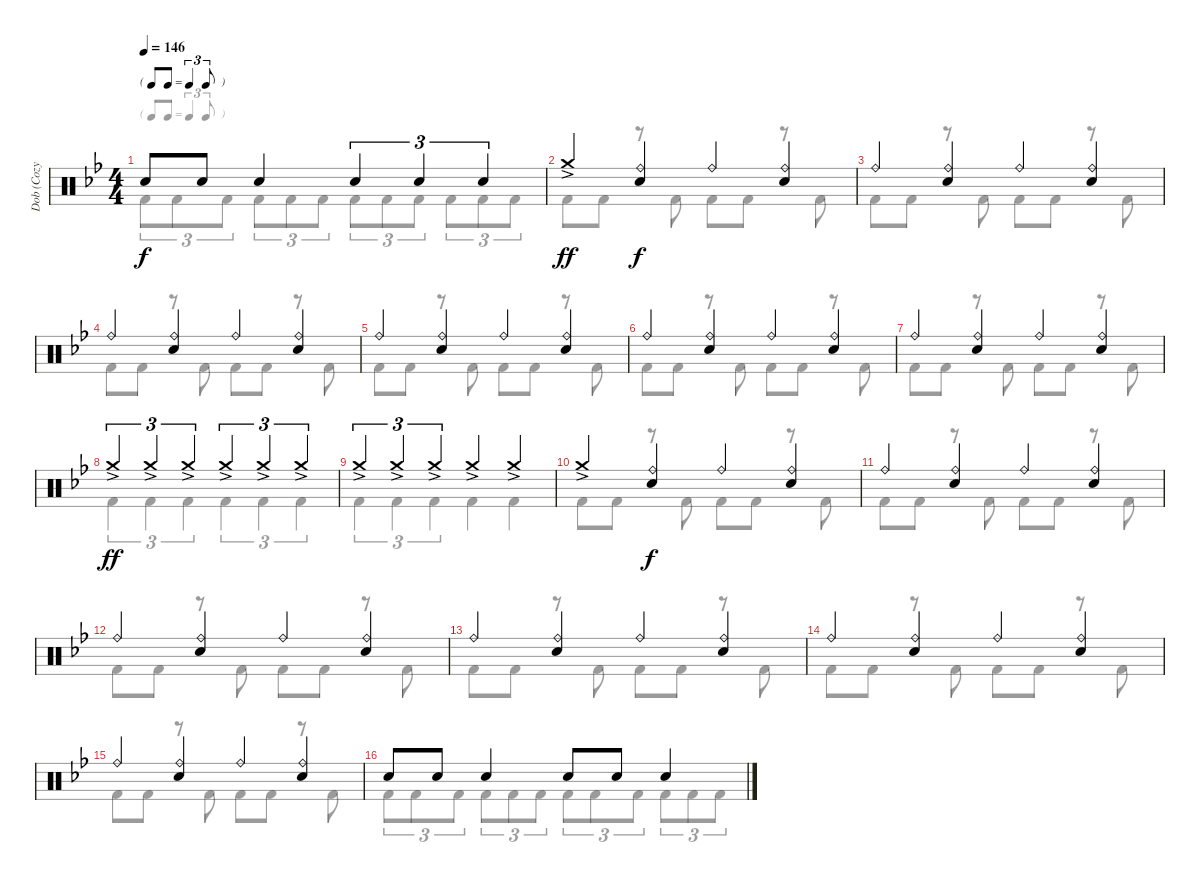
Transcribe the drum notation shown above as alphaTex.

\track ("Dob (Cozy Powell)" "Dob (Cozy ") {instrument percussion}
\staff {score}
\articulation defaults
\voice
\ts (4 4)
\tf triplet8th
\tempo 146
\clef neutral
\ks bb "Electric Snare (hit)".8{dy f} "Electric Snare (hit)".8 "Electric Snare (hit)".4 "Electric Snare (hit)".4{tu (3 2)} "Electric Snare (hit)".4{tu (3 2)} "Electric Snare (hit)".4{tu (3 2)}
|
"Crash medium (hit)"{ac}.4{dy ff} ("Ride (bell)" "Electric Snare (hit)").4{dy f} "Ride (bell)".4 ("Ride (bell)" "Electric Snare (hit)").4 |
"Ride (bell)".4 ("Ride (bell)" "Electric Snare (hit)").4 "Ride (bell)".4 ("Ride (bell)" "Electric Snare (hit)").4 |
"Ride (bell)".4 ("Ride (bell)" "Electric Snare (hit)").4 "Ride (bell)".4 ("Ride (bell)" "Electric Snare (hit)").4 |
"Ride (bell)".4 ("Ride (bell)" "Electric Snare (hit)").4 "Ride (bell)".4 ("Ride (bell)" "Electric Snare (hit)").4 |
"Ride (bell)".4 ("Ride (bell)" "Electric Snare (hit)").4 "Ride (bell)".4 ("Ride (bell)" "Electric Snare (hit)").4 |
"Ride (bell)".4 ("Ride (bell)" "Electric Snare (hit)").4 "Ride (bell)".4 ("Ride (bell)" "Electric Snare (hit)").4 |
"Crash medium (hit)"{ac}.4{tu (3 2) dy ff} "Crash medium (hit)"{ac}.4{tu (3 2)} "Crash medium (hit)"{ac}.4{tu (3 2)} "Crash medium (hit)"{ac}.4{tu (3 2)} "Crash medium (hit)"{ac}.4{tu (3 2)} "Crash medium (hit)"{ac}.4{tu (3 2)} |
"Crash medium (hit)"{ac}.4{tu (3 2)} "Crash medium (hit)"{ac}.4{tu (3 2)} "Crash medium (hit)"{ac}.4{tu (3 2)} "Crash medium (hit)"{ac}.4 "Crash medium (hit)"{ac}.4 |
"Crash medium (hit)"{ac}.4 ("Ride (bell)" "Electric Snare (hit)").4{dy f} "Ride (bell)".4 ("Ride (bell)" "Electric Snare (hit)").4 |
"Ride (bell)".4 ("Ride (bell)" "Electric Snare (hit)").4 "Ride (bell)".4 ("Ride (bell)" "Electric Snare (hit)").4 |
"Ride (bell)".4 ("Ride (bell)" "Electric Snare (hit)").4 "Ride (bell)".4 ("Ride (bell)" "Electric Snare (hit)").4 |
"Ride (bell)".4 ("Ride (bell)" "Electric Snare (hit)").4 "Ride (bell)".4 ("Ride (bell)" "Electric Snare (hit)").4 |
"Ride (bell)".4 ("Ride (bell)" "Electric Snare (hit)").4 "Ride (bell)".4 ("Ride (bell)" "Electric Snare (hit)").4 |
"Ride (bell)".4 ("Ride (bell)" "Electric Snare (hit)").4 "Ride (bell)".4 ("Ride (bell)" "Electric Snare (hit)").4 |
"Electric Snare (hit)".8 "Electric Snare (hit)".8 "Electric Snare (hit)".4 "Electric Snare (hit)".8 "Electric Snare (hit)".8 "Electric Snare (hit)".4
\voice
\clef neutral
\ottava regular
\simile none
\ks bb "Kick (hit) 2".8{tu (3 2) dy f} "Kick (hit) 2".8{tu (3 2)} "Kick (hit) 2".8{tu (3 2)} "Kick (hit) 2".8{tu (3 2)} "Kick (hit) 2".8{tu (3 2)} "Kick (hit) 2".8{tu (3 2)} "Kick (hit) 2".8{tu (3 2)} "Kick (hit) 2".8{tu (3 2)} "Kick (hit) 2".8{tu (3 2)} "Kick (hit) 2".8{tu (3 2)} "Kick (hit) 2".8{tu (3 2)} "Kick (hit) 2".8{tu (3 2)}
|
"Kick (hit) 2".8 "Kick (hit) 2".8 r.8 "Kick (hit) 2".8 "Kick (hit) 2".8 "Kick (hit) 2".8 r.8 "Kick (hit) 2".8 |
"Kick (hit) 2".8 "Kick (hit) 2".8 r.8 "Kick (hit) 2".8 "Kick (hit) 2".8 "Kick (hit) 2".8 r.8 "Kick (hit) 2".8 |
"Kick (hit) 2".8 "Kick (hit) 2".8 r.8 "Kick (hit) 2".8 "Kick (hit) 2".8 "Kick (hit) 2".8 r.8 "Kick (hit) 2".8 |
"Kick (hit) 2".8 "Kick (hit) 2".8 r.8 "Kick (hit) 2".8 "Kick (hit) 2".8 "Kick (hit) 2".8 r.8 "Kick (hit) 2".8 |
"Kick (hit) 2".8 "Kick (hit) 2".8 r.8 "Kick (hit) 2".8 "Kick (hit) 2".8 "Kick (hit) 2".8 r.8 "Kick (hit) 2".8 |
"Kick (hit) 2".8 "Kick (hit) 2".8 r.8 "Kick (hit) 2".8 "Kick (hit) 2".8 "Kick (hit) 2".8 r.8 "Kick (hit) 2".8 |
"Kick (hit) 2".4{tu (3 2)} "Kick (hit) 2".4{tu (3 2)} "Kick (hit) 2".4{tu (3 2)} "Kick (hit) 2".4{tu (3 2)} "Kick (hit) 2".4{tu (3 2)} "Kick (hit) 2".4{tu (3 2)} |
"Kick (hit) 2".4{tu (3 2)} "Kick (hit) 2".4{tu (3 2)} "Kick (hit) 2".4{tu (3 2)} "Kick (hit) 2".4 "Kick (hit) 2".4 |
"Kick (hit) 2".8 "Kick (hit) 2".8 r.8 "Kick (hit) 2".8 "Kick (hit) 2".8 "Kick (hit) 2".8 r.8 "Kick (hit) 2".8 |
"Kick (hit) 2".8 "Kick (hit) 2".8 r.8 "Kick (hit) 2".8 "Kick (hit) 2".8 "Kick (hit) 2".8 r.8 "Kick (hit) 2".8 |
"Kick (hit) 2".8 "Kick (hit) 2".8 r.8 "Kick (hit) 2".8 "Kick (hit) 2".8 "Kick (hit) 2".8 r.8 "Kick (hit) 2".8 |
"Kick (hit) 2".8 "Kick (hit) 2".8 r.8 "Kick (hit) 2".8 "Kick (hit) 2".8 "Kick (hit) 2".8 r.8 "Kick (hit) 2".8 |
"Kick (hit) 2".8 "Kick (hit) 2".8 r.8 "Kick (hit) 2".8 "Kick (hit) 2".8 "Kick (hit) 2".8 r.8 "Kick (hit) 2".8 |
"Kick (hit) 2".8 "Kick (hit) 2".8 r.8 "Kick (hit) 2".8 "Kick (hit) 2".8 "Kick (hit) 2".8 r.8 "Kick (hit) 2".8 |
"Kick (hit) 2".8{tu (3 2)} "Kick (hit) 2".8{tu (3 2)} "Kick (hit) 2".8{tu (3 2)} "Kick (hit) 2".8{tu (3 2)} "Kick (hit) 2".8{tu (3 2)} "Kick (hit) 2".8{tu (3 2)} "Kick (hit) 2".8{tu (3 2)} "Kick (hit) 2".8{tu (3 2)} "Kick (hit) 2".8{tu (3 2)} "Kick (hit) 2".8{tu (3 2)} "Kick (hit) 2".8{tu (3 2)} "Kick (hit) 2".8{tu (3 2)}
